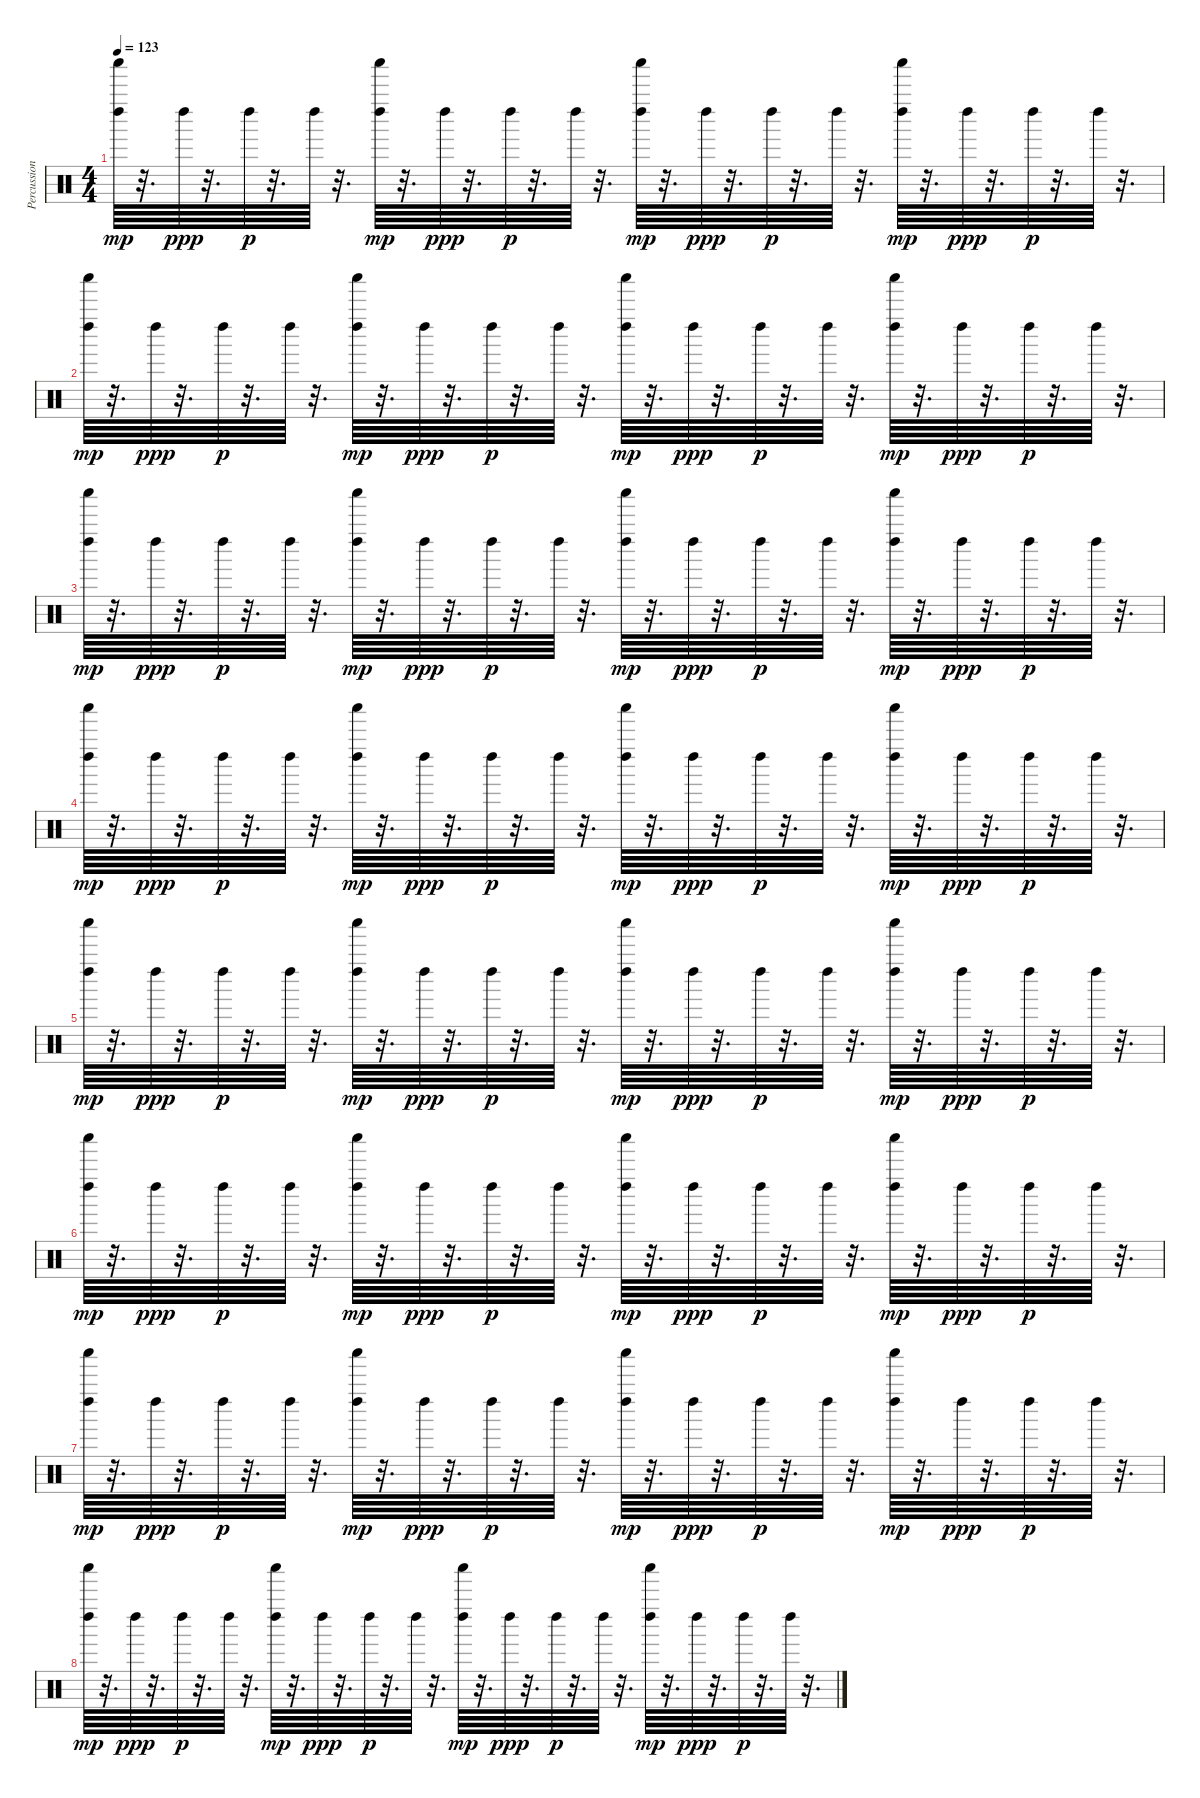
\track ("Percussion" "Percussion") {instrument percussion}
\staff {score}
\articulation defaults
\ts (4 4)
\tempo 123
\clef neutral
\ks c
("Left Maraca (hit)" "Shaker (hit)").64{dy mp} r.32{d} "Left Maraca (hit)".64{dy ppp} r.32{d} "Left Maraca (hit)".64{dy p} r.32{d} "Left Maraca (hit)".64 r.32{d} ("Left Maraca (hit)" "Shaker (hit)").64{dy mp} r.32{d} "Left Maraca (hit)".64{dy ppp} r.32{d} "Left Maraca (hit)".64{dy p} r.32{d} "Left Maraca (hit)".64 r.32{d} ("Left Maraca (hit)" "Shaker (hit)").64{dy mp} r.32{d} "Left Maraca (hit)".64{dy ppp} r.32{d} "Left Maraca (hit)".64{dy p} r.32{d} "Left Maraca (hit)".64 r.32{d} ("Left Maraca (hit)" "Shaker (hit)").64{dy mp} r.32{d} "Left Maraca (hit)".64{dy ppp} r.32{d} "Left Maraca (hit)".64{dy p} r.32{d} "Left Maraca (hit)".64 r.32{d} |
("Left Maraca (hit)" "Shaker (hit)").64{dy mp} r.32{d} "Left Maraca (hit)".64{dy ppp} r.32{d} "Left Maraca (hit)".64{dy p} r.32{d} "Left Maraca (hit)".64 r.32{d} ("Left Maraca (hit)" "Shaker (hit)").64{dy mp} r.32{d} "Left Maraca (hit)".64{dy ppp} r.32{d} "Left Maraca (hit)".64{dy p} r.32{d} "Left Maraca (hit)".64 r.32{d} ("Left Maraca (hit)" "Shaker (hit)").64{dy mp} r.32{d} "Left Maraca (hit)".64{dy ppp} r.32{d} "Left Maraca (hit)".64{dy p} r.32{d} "Left Maraca (hit)".64 r.32{d} ("Left Maraca (hit)" "Shaker (hit)").64{dy mp} r.32{d} "Left Maraca (hit)".64{dy ppp} r.32{d} "Left Maraca (hit)".64{dy p} r.32{d} "Left Maraca (hit)".64 r.32{d} |
("Left Maraca (hit)" "Shaker (hit)").64{dy mp} r.32{d} "Left Maraca (hit)".64{dy ppp} r.32{d} "Left Maraca (hit)".64{dy p} r.32{d} "Left Maraca (hit)".64 r.32{d} ("Left Maraca (hit)" "Shaker (hit)").64{dy mp} r.32{d} "Left Maraca (hit)".64{dy ppp} r.32{d} "Left Maraca (hit)".64{dy p} r.32{d} "Left Maraca (hit)".64 r.32{d} ("Left Maraca (hit)" "Shaker (hit)").64{dy mp} r.32{d} "Left Maraca (hit)".64{dy ppp} r.32{d} "Left Maraca (hit)".64{dy p} r.32{d} "Left Maraca (hit)".64 r.32{d} ("Left Maraca (hit)" "Shaker (hit)").64{dy mp} r.32{d} "Left Maraca (hit)".64{dy ppp} r.32{d} "Left Maraca (hit)".64{dy p} r.32{d} "Left Maraca (hit)".64 r.32{d} |
("Left Maraca (hit)" "Shaker (hit)").64{dy mp} r.32{d} "Left Maraca (hit)".64{dy ppp} r.32{d} "Left Maraca (hit)".64{dy p} r.32{d} "Left Maraca (hit)".64 r.32{d} ("Left Maraca (hit)" "Shaker (hit)").64{dy mp} r.32{d} "Left Maraca (hit)".64{dy ppp} r.32{d} "Left Maraca (hit)".64{dy p} r.32{d} "Left Maraca (hit)".64 r.32{d} ("Left Maraca (hit)" "Shaker (hit)").64{dy mp} r.32{d} "Left Maraca (hit)".64{dy ppp} r.32{d} "Left Maraca (hit)".64{dy p} r.32{d} "Left Maraca (hit)".64 r.32{d} ("Left Maraca (hit)" "Shaker (hit)").64{dy mp} r.32{d} "Left Maraca (hit)".64{dy ppp} r.32{d} "Left Maraca (hit)".64{dy p} r.32{d} "Left Maraca (hit)".64 r.32{d} |
("Left Maraca (hit)" "Shaker (hit)").64{dy mp} r.32{d} "Left Maraca (hit)".64{dy ppp} r.32{d} "Left Maraca (hit)".64{dy p} r.32{d} "Left Maraca (hit)".64 r.32{d} ("Left Maraca (hit)" "Shaker (hit)").64{dy mp} r.32{d} "Left Maraca (hit)".64{dy ppp} r.32{d} "Left Maraca (hit)".64{dy p} r.32{d} "Left Maraca (hit)".64 r.32{d} ("Left Maraca (hit)" "Shaker (hit)").64{dy mp} r.32{d} "Left Maraca (hit)".64{dy ppp} r.32{d} "Left Maraca (hit)".64{dy p} r.32{d} "Left Maraca (hit)".64 r.32{d} ("Left Maraca (hit)" "Shaker (hit)").64{dy mp} r.32{d} "Left Maraca (hit)".64{dy ppp} r.32{d} "Left Maraca (hit)".64{dy p} r.32{d} "Left Maraca (hit)".64 r.32{d} |
("Left Maraca (hit)" "Shaker (hit)").64{dy mp} r.32{d} "Left Maraca (hit)".64{dy ppp} r.32{d} "Left Maraca (hit)".64{dy p} r.32{d} "Left Maraca (hit)".64 r.32{d} ("Left Maraca (hit)" "Shaker (hit)").64{dy mp} r.32{d} "Left Maraca (hit)".64{dy ppp} r.32{d} "Left Maraca (hit)".64{dy p} r.32{d} "Left Maraca (hit)".64 r.32{d} ("Left Maraca (hit)" "Shaker (hit)").64{dy mp} r.32{d} "Left Maraca (hit)".64{dy ppp} r.32{d} "Left Maraca (hit)".64{dy p} r.32{d} "Left Maraca (hit)".64 r.32{d} ("Left Maraca (hit)" "Shaker (hit)").64{dy mp} r.32{d} "Left Maraca (hit)".64{dy ppp} r.32{d} "Left Maraca (hit)".64{dy p} r.32{d} "Left Maraca (hit)".64 r.32{d} |
("Left Maraca (hit)" "Shaker (hit)").64{dy mp} r.32{d} "Left Maraca (hit)".64{dy ppp} r.32{d} "Left Maraca (hit)".64{dy p} r.32{d} "Left Maraca (hit)".64 r.32{d} ("Left Maraca (hit)" "Shaker (hit)").64{dy mp} r.32{d} "Left Maraca (hit)".64{dy ppp} r.32{d} "Left Maraca (hit)".64{dy p} r.32{d} "Left Maraca (hit)".64 r.32{d} ("Left Maraca (hit)" "Shaker (hit)").64{dy mp} r.32{d} "Left Maraca (hit)".64{dy ppp} r.32{d} "Left Maraca (hit)".64{dy p} r.32{d} "Left Maraca (hit)".64 r.32{d} ("Left Maraca (hit)" "Shaker (hit)").64{dy mp} r.32{d} "Left Maraca (hit)".64{dy ppp} r.32{d} "Left Maraca (hit)".64{dy p} r.32{d} "Left Maraca (hit)".64 r.32{d} |
("Left Maraca (hit)" "Shaker (hit)").64{dy mp} r.32{d} "Left Maraca (hit)".64{dy ppp} r.32{d} "Left Maraca (hit)".64{dy p} r.32{d} "Left Maraca (hit)".64 r.32{d} ("Left Maraca (hit)" "Shaker (hit)").64{dy mp} r.32{d} "Left Maraca (hit)".64{dy ppp} r.32{d} "Left Maraca (hit)".64{dy p} r.32{d} "Left Maraca (hit)".64 r.32{d} ("Left Maraca (hit)" "Shaker (hit)").64{dy mp} r.32{d} "Left Maraca (hit)".64{dy ppp} r.32{d} "Left Maraca (hit)".64{dy p} r.32{d} "Left Maraca (hit)".64 r.32{d} ("Left Maraca (hit)" "Shaker (hit)").64{dy mp} r.32{d} "Left Maraca (hit)".64{dy ppp} r.32{d} "Left Maraca (hit)".64{dy p} r.32{d} "Left Maraca (hit)".64 r.32{d}
